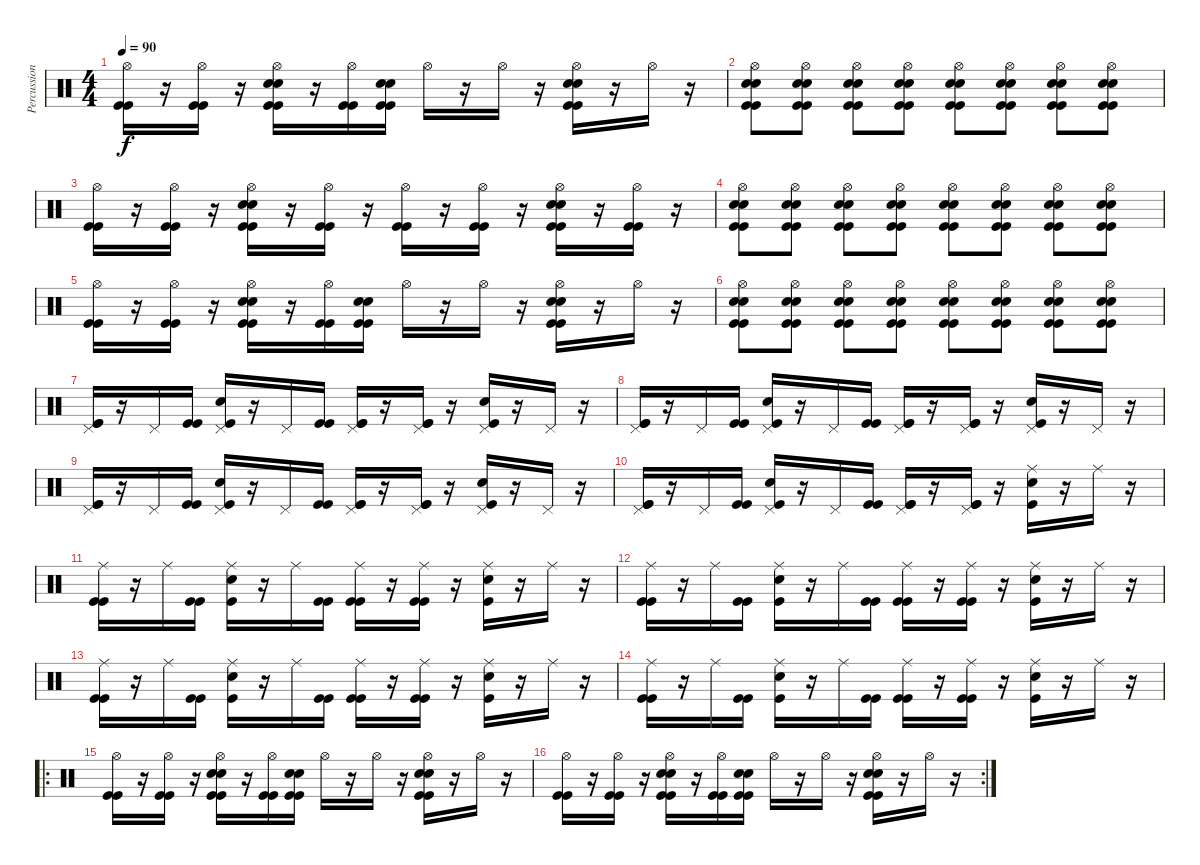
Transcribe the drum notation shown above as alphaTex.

\track ("Percussion" "Percussion") {instrument percussion}
\staff {score}
\articulation defaults
\ts (4 4)
\tempo 90
\clef neutral
\ks c
("Hi-Hat (open)" "Kick (hit)" "Kick (hit)").16{dy f} r.16 ("Hi-Hat (open)" "Kick (hit)" "Kick (hit)").16 r.16 ("Hi-Hat (open)" "Kick (hit)" "Kick (hit)" "Electric Snare (hit)" "Electric Snare (hit)").16 r.16 ("Hi-Hat (open)" "Kick (hit)" "Kick (hit)").16 ("Kick (hit)" "Kick (hit)" "Electric Snare (hit)" "Electric Snare (hit)").16 "Hi-Hat (open)".16 r.16 "Hi-Hat (open)".16 r.16 ("Hi-Hat (open)" "Kick (hit)" "Kick (hit)" "Electric Snare (hit)" "Electric Snare (hit)").16 r.16 "Hi-Hat (open)".16 r.16 |
("Hi-Hat (open)" "Kick (hit)" "Kick (hit)" "Electric Snare (hit)" "Electric Snare (hit)").8 ("Hi-Hat (open)" "Kick (hit)" "Kick (hit)" "Electric Snare (hit)" "Electric Snare (hit)").8 ("Hi-Hat (open)" "Kick (hit)" "Kick (hit)" "Electric Snare (hit)" "Electric Snare (hit)").8 ("Hi-Hat (open)" "Kick (hit)" "Kick (hit)" "Electric Snare (hit)" "Electric Snare (hit)").8 ("Hi-Hat (open)" "Kick (hit)" "Kick (hit)" "Electric Snare (hit)" "Electric Snare (hit)").8 ("Hi-Hat (open)" "Kick (hit)" "Kick (hit)" "Electric Snare (hit)" "Electric Snare (hit)").8 ("Hi-Hat (open)" "Kick (hit)" "Kick (hit)" "Electric Snare (hit)" "Electric Snare (hit)").8 ("Hi-Hat (open)" "Kick (hit)" "Kick (hit)" "Electric Snare (hit)" "Electric Snare (hit)").8 |
("Hi-Hat (open)" "Kick (hit)" "Kick (hit)").16 r.16 ("Hi-Hat (open)" "Kick (hit)" "Kick (hit)").16 r.16 ("Hi-Hat (open)" "Kick (hit)" "Kick (hit)" "Electric Snare (hit)" "Electric Snare (hit)").16 r.16 ("Hi-Hat (open)" "Kick (hit)" "Kick (hit)").16 r.16 ("Hi-Hat (open)" "Kick (hit)" "Kick (hit)").16 r.16 ("Hi-Hat (open)" "Kick (hit)" "Kick (hit)").16 r.16 ("Hi-Hat (open)" "Kick (hit)" "Kick (hit)" "Electric Snare (hit)" "Electric Snare (hit)").16 r.16 ("Hi-Hat (open)" "Kick (hit)" "Kick (hit)").16 r.16 |
("Hi-Hat (open)" "Kick (hit)" "Kick (hit)" "Electric Snare (hit)" "Electric Snare (hit)").8 ("Hi-Hat (open)" "Kick (hit)" "Kick (hit)" "Electric Snare (hit)" "Electric Snare (hit)").8 ("Hi-Hat (open)" "Kick (hit)" "Kick (hit)" "Electric Snare (hit)" "Electric Snare (hit)").8 ("Hi-Hat (open)" "Kick (hit)" "Kick (hit)" "Electric Snare (hit)" "Electric Snare (hit)").8 ("Hi-Hat (open)" "Kick (hit)" "Kick (hit)" "Electric Snare (hit)" "Electric Snare (hit)").8 ("Hi-Hat (open)" "Kick (hit)" "Kick (hit)" "Electric Snare (hit)" "Electric Snare (hit)").8 ("Hi-Hat (open)" "Kick (hit)" "Kick (hit)" "Electric Snare (hit)" "Electric Snare (hit)").8 ("Hi-Hat (open)" "Kick (hit)" "Kick (hit)" "Electric Snare (hit)" "Electric Snare (hit)").8 |
("Hi-Hat (open)" "Kick (hit)" "Kick (hit)").16 r.16 ("Hi-Hat (open)" "Kick (hit)" "Kick (hit)").16 r.16 ("Hi-Hat (open)" "Kick (hit)" "Kick (hit)" "Electric Snare (hit)" "Electric Snare (hit)").16 r.16 ("Hi-Hat (open)" "Kick (hit)" "Kick (hit)").16 ("Kick (hit)" "Kick (hit)" "Electric Snare (hit)" "Electric Snare (hit)").16 "Hi-Hat (open)".16 r.16 "Hi-Hat (open)".16 r.16 ("Hi-Hat (open)" "Kick (hit)" "Kick (hit)" "Electric Snare (hit)" "Electric Snare (hit)").16 r.16 "Hi-Hat (open)".16 r.16 |
("Hi-Hat (open)" "Kick (hit)" "Kick (hit)" "Electric Snare (hit)" "Electric Snare (hit)").8 ("Hi-Hat (open)" "Kick (hit)" "Kick (hit)" "Electric Snare (hit)" "Electric Snare (hit)").8 ("Hi-Hat (open)" "Kick (hit)" "Kick (hit)" "Electric Snare (hit)" "Electric Snare (hit)").8 ("Hi-Hat (open)" "Kick (hit)" "Kick (hit)" "Electric Snare (hit)" "Electric Snare (hit)").8 ("Hi-Hat (open)" "Kick (hit)" "Kick (hit)" "Electric Snare (hit)" "Electric Snare (hit)").8 ("Hi-Hat (open)" "Kick (hit)" "Kick (hit)" "Electric Snare (hit)" "Electric Snare (hit)").8 ("Hi-Hat (open)" "Kick (hit)" "Kick (hit)" "Electric Snare (hit)" "Electric Snare (hit)").8 ("Hi-Hat (open)" "Kick (hit)" "Kick (hit)" "Electric Snare (hit)" "Electric Snare (hit)").8 |
("Pedal Hi-Hat (hit)" "Kick (hit)" "Kick (hit)").16 r.16 "Pedal Hi-Hat (hit)".16 ("Kick (hit)" "Kick (hit)").16 ("Pedal Hi-Hat (hit)" "Kick (hit)" "Electric Snare (hit)").16 r.16 "Pedal Hi-Hat (hit)".16 ("Kick (hit)" "Kick (hit)").16 ("Pedal Hi-Hat (hit)" "Kick (hit)" "Kick (hit)").16 r.16 ("Pedal Hi-Hat (hit)" "Kick (hit)" "Kick (hit)").16 r.16 ("Pedal Hi-Hat (hit)" "Kick (hit)" "Electric Snare (hit)").16 r.16 "Pedal Hi-Hat (hit)".16 r.16 |
("Pedal Hi-Hat (hit)" "Kick (hit)" "Kick (hit)").16 r.16 "Pedal Hi-Hat (hit)".16 ("Kick (hit)" "Kick (hit)").16 ("Pedal Hi-Hat (hit)" "Kick (hit)" "Electric Snare (hit)").16 r.16 "Pedal Hi-Hat (hit)".16 ("Kick (hit)" "Kick (hit)").16 ("Pedal Hi-Hat (hit)" "Kick (hit)" "Kick (hit)").16 r.16 ("Pedal Hi-Hat (hit)" "Kick (hit)" "Kick (hit)").16 r.16 ("Pedal Hi-Hat (hit)" "Kick (hit)" "Electric Snare (hit)").16 r.16 "Pedal Hi-Hat (hit)".16 r.16 |
("Pedal Hi-Hat (hit)" "Kick (hit)" "Kick (hit)").16 r.16 "Pedal Hi-Hat (hit)".16 ("Kick (hit)" "Kick (hit)").16 ("Pedal Hi-Hat (hit)" "Kick (hit)" "Electric Snare (hit)").16 r.16 "Pedal Hi-Hat (hit)".16 ("Kick (hit)" "Kick (hit)").16 ("Pedal Hi-Hat (hit)" "Kick (hit)" "Kick (hit)").16 r.16 ("Pedal Hi-Hat (hit)" "Kick (hit)" "Kick (hit)").16 r.16 ("Pedal Hi-Hat (hit)" "Kick (hit)" "Electric Snare (hit)").16 r.16 "Pedal Hi-Hat (hit)".16 r.16 |
("Pedal Hi-Hat (hit)" "Kick (hit)" "Kick (hit)").16 r.16 "Pedal Hi-Hat (hit)".16 ("Kick (hit)" "Kick (hit)").16 ("Pedal Hi-Hat (hit)" "Kick (hit)" "Electric Snare (hit)").16 r.16 "Pedal Hi-Hat (hit)".16 ("Kick (hit)" "Kick (hit)").16 ("Pedal Hi-Hat (hit)" "Kick (hit)" "Kick (hit)").16 r.16 ("Pedal Hi-Hat (hit)" "Kick (hit)" "Kick (hit)").16 r.16 ("Ride (middle)" "Kick (hit)" "Electric Snare (hit)").16 r.16 "Ride (middle)".16 r.16 |
("Ride (middle)" "Kick (hit)" "Kick (hit)").16 r.16 "Ride (middle)".16 ("Kick (hit)" "Kick (hit)").16 ("Ride (middle)" "Kick (hit)" "Electric Snare (hit)").16 r.16 "Ride (middle)".16 ("Kick (hit)" "Kick (hit)").16 ("Ride (middle)" "Kick (hit)" "Kick (hit)").16 r.16 ("Ride (middle)" "Kick (hit)" "Kick (hit)").16 r.16 ("Ride (middle)" "Kick (hit)" "Electric Snare (hit)").16 r.16 "Ride (middle)".16 r.16 |
("Ride (middle)" "Kick (hit)" "Kick (hit)").16 r.16 "Ride (middle)".16 ("Kick (hit)" "Kick (hit)").16 ("Ride (middle)" "Kick (hit)" "Electric Snare (hit)").16 r.16 "Ride (middle)".16 ("Kick (hit)" "Kick (hit)").16 ("Ride (middle)" "Kick (hit)" "Kick (hit)").16 r.16 ("Ride (middle)" "Kick (hit)" "Kick (hit)").16 r.16 ("Ride (middle)" "Kick (hit)" "Electric Snare (hit)").16 r.16 "Ride (middle)".16 r.16 |
("Ride (middle)" "Kick (hit)" "Kick (hit)").16 r.16 "Ride (middle)".16 ("Kick (hit)" "Kick (hit)").16 ("Ride (middle)" "Kick (hit)" "Electric Snare (hit)").16 r.16 "Ride (middle)".16 ("Kick (hit)" "Kick (hit)").16 ("Ride (middle)" "Kick (hit)" "Kick (hit)").16 r.16 ("Ride (middle)" "Kick (hit)" "Kick (hit)").16 r.16 ("Ride (middle)" "Kick (hit)" "Electric Snare (hit)").16 r.16 "Ride (middle)".16 r.16 |
("Ride (middle)" "Kick (hit)" "Kick (hit)").16 r.16 "Ride (middle)".16 ("Kick (hit)" "Kick (hit)").16 ("Ride (middle)" "Kick (hit)" "Electric Snare (hit)").16 r.16 "Ride (middle)".16 ("Kick (hit)" "Kick (hit)").16 ("Ride (middle)" "Kick (hit)" "Kick (hit)").16 r.16 ("Ride (middle)" "Kick (hit)" "Kick (hit)").16 r.16 ("Ride (middle)" "Kick (hit)" "Electric Snare (hit)").16 r.16 "Ride (middle)".16 r.16 |
\ro
("Hi-Hat (open)" "Kick (hit)" "Kick (hit)").16 r.16 ("Hi-Hat (open)" "Kick (hit)" "Kick (hit)").16 r.16 ("Hi-Hat (open)" "Kick (hit)" "Kick (hit)" "Electric Snare (hit)" "Electric Snare (hit)").16 r.16 ("Hi-Hat (open)" "Kick (hit)" "Kick (hit)").16 ("Kick (hit)" "Kick (hit)" "Electric Snare (hit)" "Electric Snare (hit)").16 "Hi-Hat (open)".16 r.16 "Hi-Hat (open)".16 r.16 ("Hi-Hat (open)" "Kick (hit)" "Kick (hit)" "Electric Snare (hit)" "Electric Snare (hit)").16 r.16 "Hi-Hat (open)".16 r.16 |
\rc 2
("Hi-Hat (open)" "Kick (hit)" "Kick (hit)").16 r.16 ("Hi-Hat (open)" "Kick (hit)" "Kick (hit)").16 r.16 ("Hi-Hat (open)" "Kick (hit)" "Kick (hit)" "Electric Snare (hit)" "Electric Snare (hit)").16 r.16 ("Hi-Hat (open)" "Kick (hit)" "Kick (hit)").16 ("Kick (hit)" "Kick (hit)" "Electric Snare (hit)" "Electric Snare (hit)").16 "Hi-Hat (open)".16 r.16 "Hi-Hat (open)".16 r.16 ("Hi-Hat (open)" "Kick (hit)" "Kick (hit)" "Electric Snare (hit)" "Electric Snare (hit)").16 r.16 "Hi-Hat (open)".16 r.16
